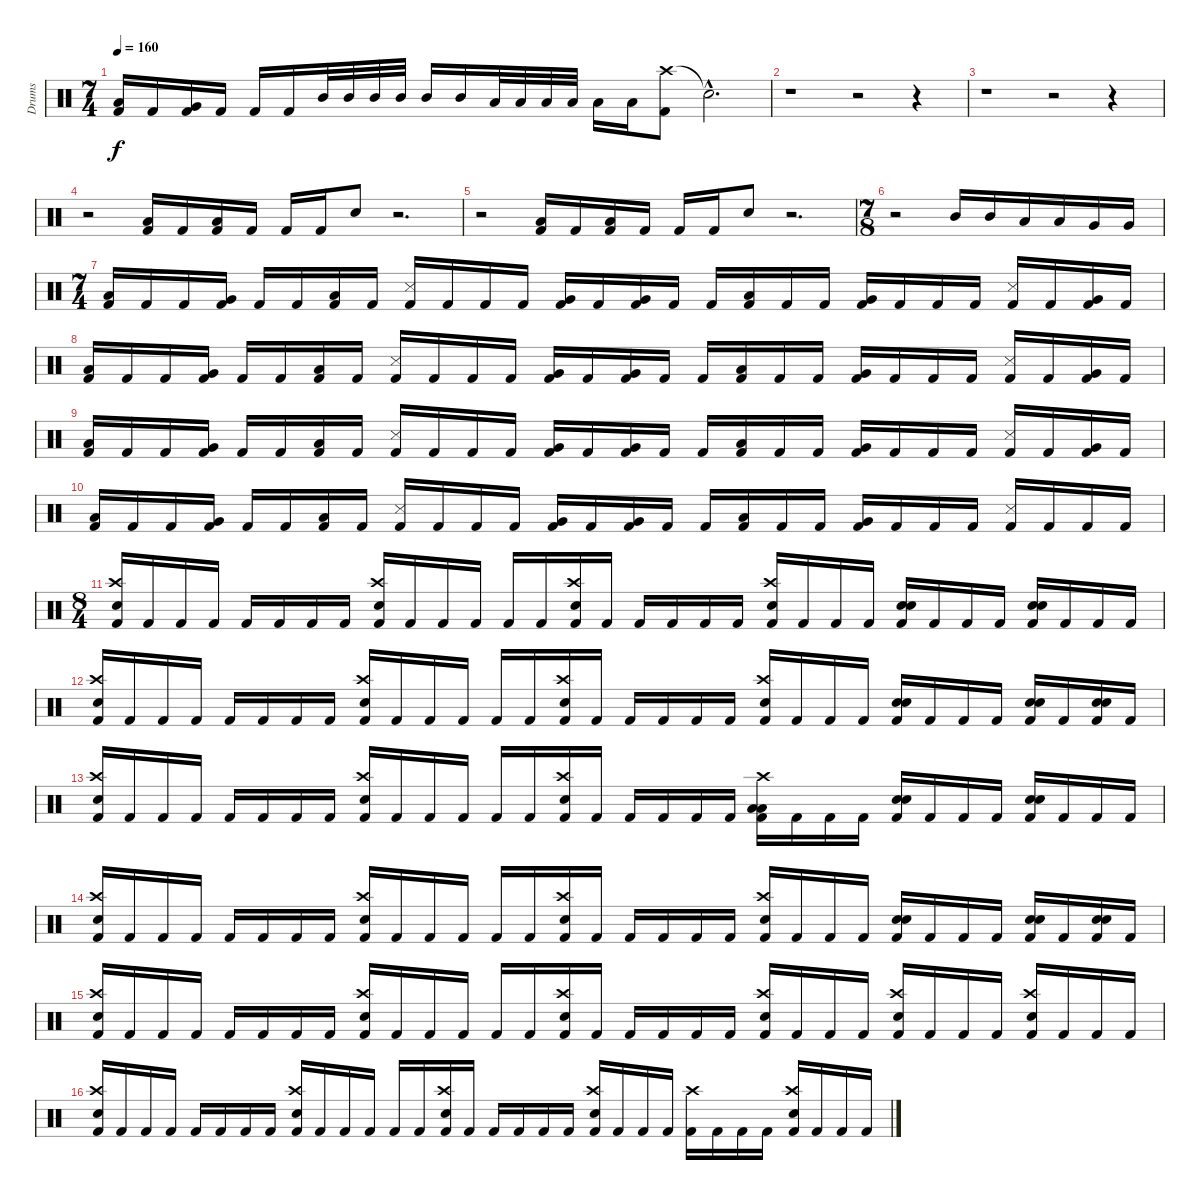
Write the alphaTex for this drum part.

\track ("Drums" "Drums") {instrument percussion}
\staff {score}
\articulation defaults
\ts (7 4)
\tempo 160
\clef neutral
\ks c
("Low Floor Tom (hit)" "Kick (hit) 2").16{dy f} "Kick (hit) 2".16 ("Very Low Tom (hit)" "Kick (hit) 2").16 "Kick (hit) 2".16 "Kick (hit) 2".16 "Kick (hit) 2".16 "Mid Tom (hit)".32 "Mid Tom (hit)".32 "Mid Tom (hit)".32 "Mid Tom (hit)".32 "Mid Tom (hit)".16 "Mid Tom (hit)".16 "Low Tom (hit)".32 "Low Tom (hit)".32 "Low Tom (hit)".32 "Low Tom (hit)".32 "Low Tom (hit)".16 "Low Tom (hit)".16 ("Crash high (hit)" "Kick (hit) 2").8 "Snare (hit)"{hac t}.2{d} |
r.1 r.2 r.4 |
r.1 r.2 r.4 |
r.2 ("Low Floor Tom (hit)" "Kick (hit) 2").16 "Kick (hit) 2".16 ("Low Floor Tom (hit)" "Kick (hit) 2").16 "Kick (hit) 2".16 "Kick (hit) 2".16 "Kick (hit) 2".16 "Snare (hit) 2".8 r.2{d} |
r.2 ("Low Floor Tom (hit)" "Kick (hit) 2").16 "Kick (hit) 2".16 ("Low Floor Tom (hit)" "Kick (hit) 2").16 "Kick (hit) 2".16 "Kick (hit) 2".16 "Kick (hit) 2".16 "Snare (hit) 2".8 r.2{d} |
\ts (7 8)
r.2 "Mid Tom (hit)".16 "Mid Tom (hit)".16 "Low Tom (hit)".16 "Low Tom (hit)".16 "Very Low Tom (hit)".16 "Very Low Tom (hit)".16 |
\ts (7 4)
("Low Floor Tom (hit)" "Kick (hit) 2").16 "Kick (hit) 2".16 "Kick (hit) 2".16 ("Very Low Tom (hit)" "Kick (hit) 2").16 "Kick (hit) 2".16 "Kick (hit) 2".16 ("Low Floor Tom (hit)" "Kick (hit) 2").16 "Kick (hit) 2".16 ("Snare (side stick) 3" "Kick (hit) 2").16 "Kick (hit) 2".16 "Kick (hit) 2".16 "Kick (hit) 2".16 ("Very Low Tom (hit)" "Kick (hit) 2").16 "Kick (hit) 2".16 ("Very Low Tom (hit)" "Kick (hit) 2").16 "Kick (hit) 2".16 "Kick (hit) 2".16 ("Low Floor Tom (hit)" "Kick (hit) 2").16 "Kick (hit) 2".16 "Kick (hit) 2".16 ("Very Low Tom (hit)" "Kick (hit) 2").16 "Kick (hit) 2".16 "Kick (hit) 2".16 "Kick (hit) 2".16 ("Snare (side stick) 3" "Kick (hit) 2").16 "Kick (hit) 2".16 ("Very Low Tom (hit)" "Kick (hit) 2").16 "Kick (hit) 2".16 |
("Low Floor Tom (hit)" "Kick (hit) 2").16 "Kick (hit) 2".16 "Kick (hit) 2".16 ("Very Low Tom (hit)" "Kick (hit) 2").16 "Kick (hit) 2".16 "Kick (hit) 2".16 ("Low Floor Tom (hit)" "Kick (hit) 2").16 "Kick (hit) 2".16 ("Snare (side stick) 3" "Kick (hit) 2").16 "Kick (hit) 2".16 "Kick (hit) 2".16 "Kick (hit) 2".16 ("Very Low Tom (hit)" "Kick (hit) 2").16 "Kick (hit) 2".16 ("Very Low Tom (hit)" "Kick (hit) 2").16 "Kick (hit) 2".16 "Kick (hit) 2".16 ("Low Floor Tom (hit)" "Kick (hit) 2").16 "Kick (hit) 2".16 "Kick (hit) 2".16 ("Very Low Tom (hit)" "Kick (hit) 2").16 "Kick (hit) 2".16 "Kick (hit) 2".16 "Kick (hit) 2".16 ("Snare (side stick) 3" "Kick (hit) 2").16 "Kick (hit) 2".16 ("Very Low Tom (hit)" "Kick (hit) 2").16 "Kick (hit) 2".16 |
("Low Floor Tom (hit)" "Kick (hit) 2").16 "Kick (hit) 2".16 "Kick (hit) 2".16 ("Very Low Tom (hit)" "Kick (hit) 2").16 "Kick (hit) 2".16 "Kick (hit) 2".16 ("Low Floor Tom (hit)" "Kick (hit) 2").16 "Kick (hit) 2".16 ("Snare (side stick) 3" "Kick (hit) 2").16 "Kick (hit) 2".16 "Kick (hit) 2".16 "Kick (hit) 2".16 ("Very Low Tom (hit)" "Kick (hit) 2").16 "Kick (hit) 2".16 ("Very Low Tom (hit)" "Kick (hit) 2").16 "Kick (hit) 2".16 "Kick (hit) 2".16 ("Low Floor Tom (hit)" "Kick (hit) 2").16 "Kick (hit) 2".16 "Kick (hit) 2".16 ("Very Low Tom (hit)" "Kick (hit) 2").16 "Kick (hit) 2".16 "Kick (hit) 2".16 "Kick (hit) 2".16 ("Snare (side stick) 3" "Kick (hit) 2").16 "Kick (hit) 2".16 ("Very Low Tom (hit)" "Kick (hit) 2").16 "Kick (hit) 2".16 |
("Low Floor Tom (hit)" "Kick (hit) 2").16 "Kick (hit) 2".16 "Kick (hit) 2".16 ("Very Low Tom (hit)" "Kick (hit) 2").16 "Kick (hit) 2".16 "Kick (hit) 2".16 ("Low Floor Tom (hit)" "Kick (hit) 2").16 "Kick (hit) 2".16 ("Snare (side stick) 3" "Kick (hit) 2").16 "Kick (hit) 2".16 "Kick (hit) 2".16 "Kick (hit) 2".16 ("Very Low Tom (hit)" "Kick (hit) 2").16 "Kick (hit) 2".16 ("Very Low Tom (hit)" "Kick (hit) 2").16 "Kick (hit) 2".16 "Kick (hit) 2".16 ("Low Floor Tom (hit)" "Kick (hit) 2").16 "Kick (hit) 2".16 "Kick (hit) 2".16 ("Very Low Tom (hit)" "Kick (hit) 2").16 "Kick (hit) 2".16 "Kick (hit) 2".16 "Kick (hit) 2".16 ("Snare (side stick) 3" "Kick (hit) 2").16 "Kick (hit) 2".16 "Kick (hit) 2".16 "Kick (hit) 2".16 |
\ts (8 4)
("Crash high (hit)" "Snare (hit) 2" "Kick (hit) 2").16 "Kick (hit) 2".16 "Kick (hit) 2".16 "Kick (hit) 2".16 "Kick (hit) 2".16 "Kick (hit) 2".16 "Kick (hit) 2".16 "Kick (hit) 2".16 ("Crash high (hit)" "Snare (hit) 2" "Kick (hit) 2").16 "Kick (hit) 2".16 "Kick (hit) 2".16 "Kick (hit) 2".16 "Kick (hit) 2".16 "Kick (hit) 2".16 ("Crash high (hit)" "Snare (hit) 2" "Kick (hit) 2").16 "Kick (hit) 2".16 "Kick (hit) 2".16 "Kick (hit) 2".16 "Kick (hit) 2".16 "Kick (hit) 2".16 ("Crash high (hit)" "Snare (hit) 2" "Kick (hit) 2").16 "Kick (hit) 2".16 "Kick (hit) 2".16 "Kick (hit) 2".16 ("Snare (hit) 2" "Snare (hit) 2" "Kick (hit) 2").16 "Kick (hit) 2".16 "Kick (hit) 2".16 "Kick (hit) 2".16 ("Snare (hit) 2" "Snare (hit) 2" "Kick (hit) 2").16 "Kick (hit) 2".16 "Kick (hit) 2".16 "Kick (hit) 2".16 |
("Crash high (hit)" "Snare (hit) 2" "Kick (hit) 2").16 "Kick (hit) 2".16 "Kick (hit) 2".16 "Kick (hit) 2".16 "Kick (hit) 2".16 "Kick (hit) 2".16 "Kick (hit) 2".16 "Kick (hit) 2".16 ("Crash high (hit)" "Snare (hit) 2" "Kick (hit) 2").16 "Kick (hit) 2".16 "Kick (hit) 2".16 "Kick (hit) 2".16 "Kick (hit) 2".16 "Kick (hit) 2".16 ("Crash high (hit)" "Snare (hit) 2" "Kick (hit) 2").16 "Kick (hit) 2".16 "Kick (hit) 2".16 "Kick (hit) 2".16 "Kick (hit) 2".16 "Kick (hit) 2".16 ("Crash high (hit)" "Snare (hit) 2" "Kick (hit) 2").16 "Kick (hit) 2".16 "Kick (hit) 2".16 "Kick (hit) 2".16 ("Snare (hit) 2" "Snare (hit) 2" "Kick (hit) 2").16 "Kick (hit) 2".16 "Kick (hit) 2".16 "Kick (hit) 2".16 ("Snare (hit) 2" "Snare (hit) 2" "Kick (hit) 2").16 "Kick (hit) 2".16 ("Snare (hit) 2" "Snare (hit) 2" "Kick (hit) 2").16 "Kick (hit) 2".16 |
("Crash high (hit)" "Snare (hit) 2" "Kick (hit) 2").16 "Kick (hit) 2".16 "Kick (hit) 2".16 "Kick (hit) 2".16 "Kick (hit) 2".16 "Kick (hit) 2".16 "Kick (hit) 2".16 "Kick (hit) 2".16 ("Crash high (hit)" "Snare (hit) 2" "Kick (hit) 2").16 "Kick (hit) 2".16 "Kick (hit) 2".16 "Kick (hit) 2".16 "Kick (hit) 2".16 "Kick (hit) 2".16 ("Crash high (hit)" "Snare (hit) 2" "Kick (hit) 2").16 "Kick (hit) 2".16 "Kick (hit) 2".16 "Kick (hit) 2".16 "Kick (hit) 2".16 "Kick (hit) 2".16 ("Crash high (hit)" "Low Tom (hit)" "Low Tom (hit)" "Kick (hit) 2").16 "Kick (hit) 2".16 "Kick (hit) 2".16 "Kick (hit) 2".16 ("Snare (hit) 2" "Snare (hit) 2" "Kick (hit) 2").16 "Kick (hit) 2".16 "Kick (hit) 2".16 "Kick (hit) 2".16 ("Snare (hit) 2" "Snare (hit) 2" "Kick (hit) 2").16 "Kick (hit) 2".16 "Kick (hit) 2".16 "Kick (hit) 2".16 |
("Crash high (hit)" "Snare (hit) 2" "Kick (hit) 2").16 "Kick (hit) 2".16 "Kick (hit) 2".16 "Kick (hit) 2".16 "Kick (hit) 2".16 "Kick (hit) 2".16 "Kick (hit) 2".16 "Kick (hit) 2".16 ("Crash high (hit)" "Snare (hit) 2" "Kick (hit) 2").16 "Kick (hit) 2".16 "Kick (hit) 2".16 "Kick (hit) 2".16 "Kick (hit) 2".16 "Kick (hit) 2".16 ("Crash high (hit)" "Snare (hit) 2" "Kick (hit) 2").16 "Kick (hit) 2".16 "Kick (hit) 2".16 "Kick (hit) 2".16 "Kick (hit) 2".16 "Kick (hit) 2".16 ("Crash high (hit)" "Snare (hit) 2" "Kick (hit) 2").16 "Kick (hit) 2".16 "Kick (hit) 2".16 "Kick (hit) 2".16 ("Snare (hit) 2" "Snare (hit) 2" "Kick (hit) 2").16 "Kick (hit) 2".16 "Kick (hit) 2".16 "Kick (hit) 2".16 ("Snare (hit) 2" "Snare (hit) 2" "Kick (hit) 2").16 "Kick (hit) 2".16 ("Snare (hit) 2" "Snare (hit) 2" "Kick (hit) 2").16 "Kick (hit) 2".16 |
("Crash high (hit)" "Snare (hit) 2" "Kick (hit) 2").16 "Kick (hit) 2".16 "Kick (hit) 2".16 "Kick (hit) 2".16 "Kick (hit) 2".16 "Kick (hit) 2".16 "Kick (hit) 2".16 "Kick (hit) 2".16 ("Crash high (hit)" "Snare (hit) 2" "Kick (hit) 2").16 "Kick (hit) 2".16 "Kick (hit) 2".16 "Kick (hit) 2".16 "Kick (hit) 2".16 "Kick (hit) 2".16 ("Crash high (hit)" "Snare (hit) 2" "Kick (hit) 2").16 "Kick (hit) 2".16 "Kick (hit) 2".16 "Kick (hit) 2".16 "Kick (hit) 2".16 "Kick (hit) 2".16 ("Crash high (hit)" "Snare (hit) 2" "Kick (hit) 2").16 "Kick (hit) 2".16 "Kick (hit) 2".16 "Kick (hit) 2".16 ("Crash high (hit)" "Snare (hit) 2" "Kick (hit) 2").16 "Kick (hit) 2".16 "Kick (hit) 2".16 "Kick (hit) 2".16 ("Crash high (hit)" "Snare (hit) 2" "Kick (hit) 2").16 "Kick (hit) 2".16 "Kick (hit) 2".16 "Kick (hit) 2".16 |
("Crash high (hit)" "Snare (hit) 2" "Kick (hit) 2").16 "Kick (hit) 2".16 "Kick (hit) 2".16 "Kick (hit) 2".16 "Kick (hit) 2".16 "Kick (hit) 2".16 "Kick (hit) 2".16 "Kick (hit) 2".16 ("Crash high (hit)" "Snare (hit) 2" "Kick (hit) 2").16 "Kick (hit) 2".16 "Kick (hit) 2".16 "Kick (hit) 2".16 "Kick (hit) 2".16 "Kick (hit) 2".16 ("Crash high (hit)" "Snare (hit) 2" "Kick (hit) 2").16 "Kick (hit) 2".16 "Kick (hit) 2".16 "Kick (hit) 2".16 "Kick (hit) 2".16 "Kick (hit) 2".16 ("Crash high (hit)" "Snare (hit) 2" "Kick (hit) 2").16 "Kick (hit) 2".16 "Kick (hit) 2".16 "Kick (hit) 2".16 ("Crash high (hit)" "Kick (hit) 2").16 "Kick (hit) 2".16 "Kick (hit) 2".16 "Kick (hit) 2".16 ("Crash high (hit)" "Snare (hit) 2" "Kick (hit) 2").16 "Kick (hit) 2".16 "Kick (hit) 2".16 "Kick (hit) 2".16
